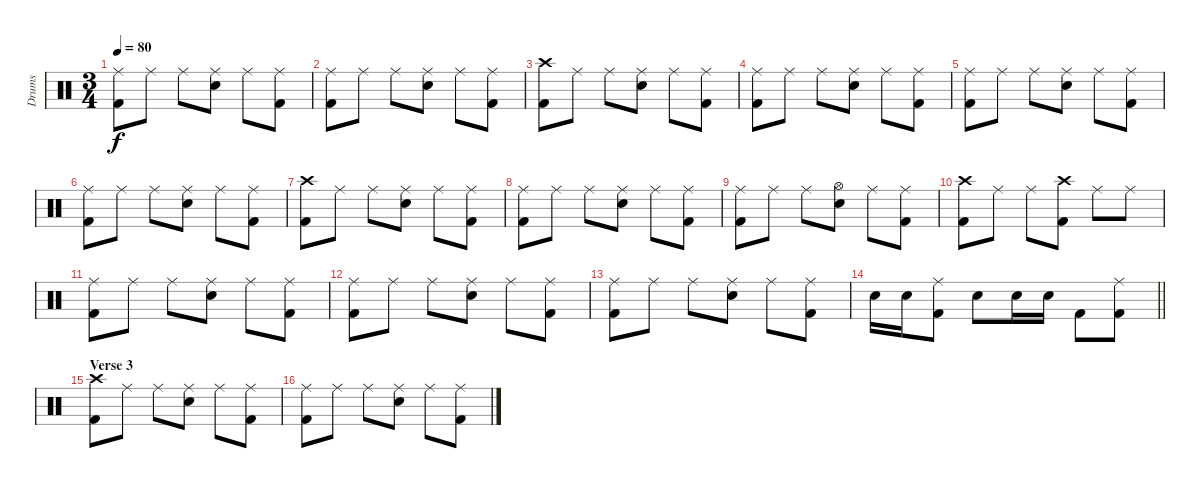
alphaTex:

\track ("Drums" "Drums") {instrument percussion}
\staff {score}
\articulation defaults
\ts (3 4)
\tempo 80
\clef neutral
\ks c
("Ride (middle)" "Kick (hit) 2").8{dy f} "Ride (middle)".8 "Ride (middle)".8 ("Ride (middle)" "Electric Snare (hit)").8 "Ride (middle)".8 ("Ride (middle)" "Kick (hit) 2").8 |
("Ride (middle)" "Kick (hit) 2").8 "Ride (middle)".8 "Ride (middle)".8 ("Ride (middle)" "Electric Snare (hit)").8 "Ride (middle)".8 ("Ride (middle)" "Kick (hit) 2").8 |
("Crash high (hit)" "Kick (hit) 2").8 "Ride (middle)".8 "Ride (middle)".8 ("Ride (middle)" "Electric Snare (hit)").8 "Ride (middle)".8 ("Ride (middle)" "Kick (hit) 2").8 |
("Ride (middle)" "Kick (hit) 2").8 "Ride (middle)".8 "Ride (middle)".8 ("Ride (middle)" "Electric Snare (hit)").8 "Ride (middle)".8 ("Ride (middle)" "Kick (hit) 2").8 |
("Ride (middle)" "Kick (hit) 2").8 "Ride (middle)".8 "Ride (middle)".8 ("Ride (middle)" "Electric Snare (hit)").8 "Ride (middle)".8 ("Ride (middle)" "Kick (hit) 2").8 |
("Ride (middle)" "Kick (hit) 2").8 "Ride (middle)".8 "Ride (middle)".8 ("Ride (middle)" "Electric Snare (hit)").8 "Ride (middle)".8 ("Ride (middle)" "Kick (hit) 2").8 |
("Crash high (hit)" "Kick (hit) 2").8 "Ride (middle)".8 "Ride (middle)".8 ("Ride (middle)" "Electric Snare (hit)").8 "Ride (middle)".8 ("Ride (middle)" "Kick (hit) 2").8 |
("Ride (middle)" "Kick (hit) 2").8 "Ride (middle)".8 "Ride (middle)".8 ("Ride (middle)" "Electric Snare (hit)").8 "Ride (middle)".8 ("Ride (middle)" "Kick (hit) 2").8 |
("Ride (middle)" "Kick (hit) 2").8 "Ride (middle)".8 "Ride (middle)".8 ("Hi-Hat (open)" "Electric Snare (hit)").8 "Ride (middle)".8 ("Ride (middle)" "Kick (hit) 2").8 |
("Crash high (hit)" "Kick (hit) 2").8 "Ride (middle)".8 "Ride (middle)".8 ("Crash high (hit)" "Kick (hit) 2").8 "Ride (middle)".8 "Ride (middle)".8 |
("Ride (middle)" "Kick (hit) 2").8 "Ride (middle)".8 "Ride (middle)".8 ("Ride (middle)" "Electric Snare (hit)").8 "Ride (middle)".8 ("Ride (middle)" "Kick (hit) 2").8 |
("Ride (middle)" "Kick (hit) 2").8 "Ride (middle)".8 "Ride (middle)".8 ("Ride (middle)" "Electric Snare (hit)").8 "Ride (middle)".8 ("Ride (middle)" "Kick (hit) 2").8 |
("Ride (middle)" "Kick (hit) 2").8 "Ride (middle)".8 "Ride (middle)".8 ("Ride (middle)" "Electric Snare (hit)").8 "Ride (middle)".8 ("Ride (middle)" "Kick (hit) 2").8 |
\barLineRight lightlight "Electric Snare (hit)".16 "Electric Snare (hit)".16
("Ride (middle)" "Kick (hit) 2").8 "Electric Snare (hit)".8 "Electric Snare (hit)".16 "Electric Snare (hit)".16 "Kick (hit) 2".8 ("Ride (middle)" "Kick (hit) 2").8 |
\section ("" "Verse 3")
("Crash high (hit)" "Kick (hit) 2").8 "Ride (middle)".8 "Ride (middle)".8 ("Ride (middle)" "Electric Snare (hit)").8 "Ride (middle)".8 ("Ride (middle)" "Kick (hit) 2").8 |
("Ride (middle)" "Kick (hit) 2").8 "Ride (middle)".8 "Ride (middle)".8 ("Ride (middle)" "Electric Snare (hit)").8 "Ride (middle)".8 ("Ride (middle)" "Kick (hit) 2").8
